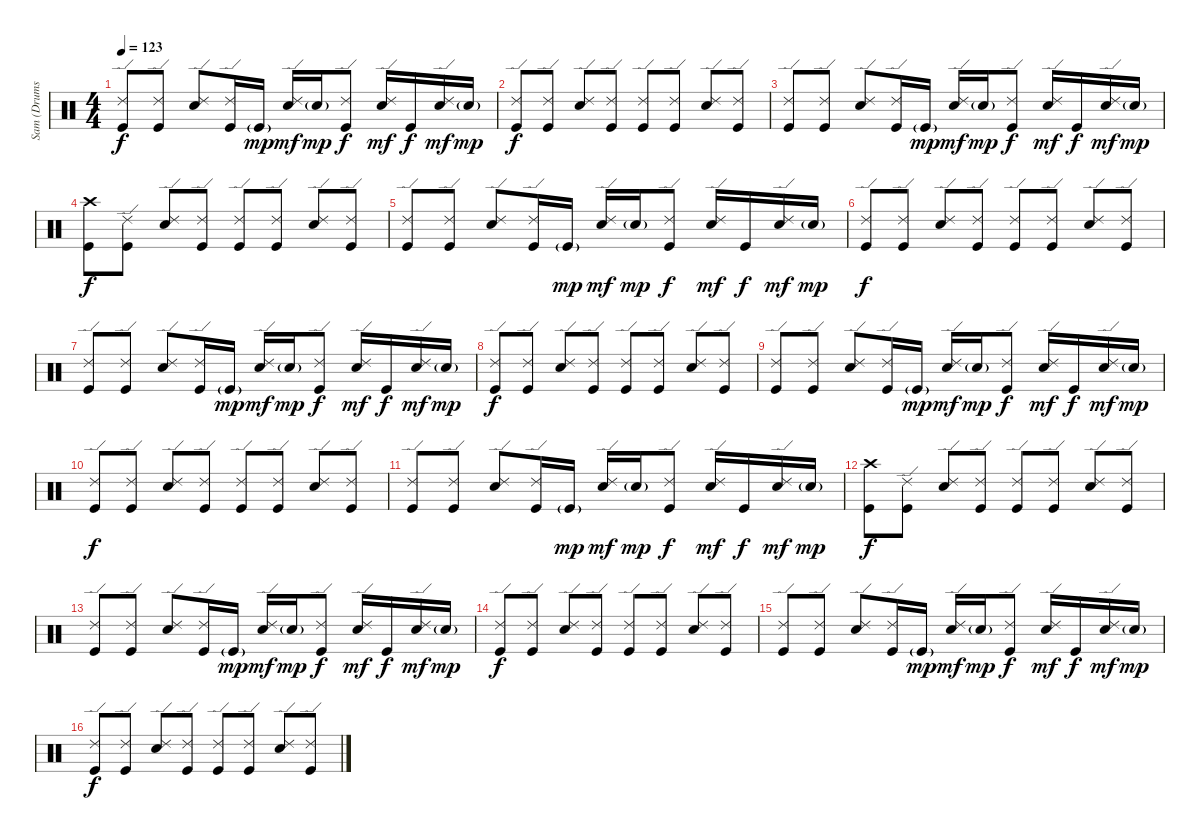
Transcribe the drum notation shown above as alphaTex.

\track ("Sam (Drums)" "Sam (Drums") {instrument percussion}
\staff {score}
\articulation defaults
\ts (4 4)
\tempo 123
\clef neutral
\ks c
("Ride (edge) 2" "Kick (hit)").8{dy f} ("Ride (edge) 2" "Kick (hit)").8 ("Ride (edge) 2" "Snare (hit) 2").8 ("Ride (edge) 2" "Kick (hit)").16 "Kick (hit)"{g}.16{dy mp} ("Ride (edge) 2" "Snare (hit) 2").16{dy mf} "Snare (hit) 2"{g}.16{dy mp} ("Ride (edge) 2" "Kick (hit)").8{dy f} ("Ride (edge) 2" "Snare (hit) 2").16{dy mf} "Kick (hit)".16{dy f} ("Ride (edge) 2" "Snare (hit) 2").16{dy mf} "Snare (hit) 2"{g}.16{dy mp} |
("Ride (edge) 2" "Kick (hit)").8{dy f} ("Ride (edge) 2" "Kick (hit)").8 ("Ride (edge) 2" "Snare (hit) 2").8 ("Ride (edge) 2" "Kick (hit)").8 ("Ride (edge) 2" "Kick (hit)").8 ("Ride (edge) 2" "Kick (hit)").8 ("Ride (edge) 2" "Snare (hit) 2").8 ("Ride (edge) 2" "Kick (hit)").8 |
("Ride (edge) 2" "Kick (hit)").8 ("Ride (edge) 2" "Kick (hit)").8 ("Ride (edge) 2" "Snare (hit) 2").8 ("Ride (edge) 2" "Kick (hit)").16 "Kick (hit)"{g}.16{dy mp} ("Ride (edge) 2" "Snare (hit) 2").16{dy mf} "Snare (hit) 2"{g}.16{dy mp} ("Ride (edge) 2" "Kick (hit)").8{dy f} ("Ride (edge) 2" "Snare (hit) 2").16{dy mf} "Kick (hit)".16{dy f} ("Ride (edge) 2" "Snare (hit) 2").16{dy mf} "Snare (hit) 2"{g}.16{dy mp} |
("Crash high (hit)" "Kick (hit)").8{dy f} ("Ride (edge) 2" "Kick (hit)").8 ("Ride (edge) 2" "Snare (hit) 2").8 ("Ride (edge) 2" "Kick (hit)").8 ("Ride (edge) 2" "Kick (hit)").8 ("Ride (edge) 2" "Kick (hit)").8 ("Ride (edge) 2" "Snare (hit) 2").8 ("Ride (edge) 2" "Kick (hit)").8 |
("Ride (edge) 2" "Kick (hit)").8 ("Ride (edge) 2" "Kick (hit)").8 ("Ride (edge) 2" "Snare (hit) 2").8 ("Ride (edge) 2" "Kick (hit)").16 "Kick (hit)"{g}.16{dy mp} ("Ride (edge) 2" "Snare (hit) 2").16{dy mf} "Snare (hit) 2"{g}.16{dy mp} ("Ride (edge) 2" "Kick (hit)").8{dy f} ("Ride (edge) 2" "Snare (hit) 2").16{dy mf} "Kick (hit)".16{dy f} ("Ride (edge) 2" "Snare (hit) 2").16{dy mf} "Snare (hit) 2"{g}.16{dy mp} |
("Ride (edge) 2" "Kick (hit)").8{dy f} ("Ride (edge) 2" "Kick (hit)").8 ("Ride (edge) 2" "Snare (hit) 2").8 ("Ride (edge) 2" "Kick (hit)").8 ("Ride (edge) 2" "Kick (hit)").8 ("Ride (edge) 2" "Kick (hit)").8 ("Ride (edge) 2" "Snare (hit) 2").8 ("Ride (edge) 2" "Kick (hit)").8 |
("Ride (edge) 2" "Kick (hit)").8 ("Ride (edge) 2" "Kick (hit)").8 ("Ride (edge) 2" "Snare (hit) 2").8 ("Ride (edge) 2" "Kick (hit)").16 "Kick (hit)"{g}.16{dy mp} ("Ride (edge) 2" "Snare (hit) 2").16{dy mf} "Snare (hit) 2"{g}.16{dy mp} ("Ride (edge) 2" "Kick (hit)").8{dy f} ("Ride (edge) 2" "Snare (hit) 2").16{dy mf} "Kick (hit)".16{dy f} ("Ride (edge) 2" "Snare (hit) 2").16{dy mf} "Snare (hit) 2"{g}.16{dy mp} |
("Ride (edge) 2" "Kick (hit)").8{dy f} ("Ride (edge) 2" "Kick (hit)").8 ("Ride (edge) 2" "Snare (hit) 2").8 ("Ride (edge) 2" "Kick (hit)").8 ("Ride (edge) 2" "Kick (hit)").8 ("Ride (edge) 2" "Kick (hit)").8 ("Ride (edge) 2" "Snare (hit) 2").8 ("Ride (edge) 2" "Kick (hit)").8 |
("Ride (edge) 2" "Kick (hit)").8 ("Ride (edge) 2" "Kick (hit)").8 ("Ride (edge) 2" "Snare (hit) 2").8 ("Ride (edge) 2" "Kick (hit)").16 "Kick (hit)"{g}.16{dy mp} ("Ride (edge) 2" "Snare (hit) 2").16{dy mf} "Snare (hit) 2"{g}.16{dy mp} ("Ride (edge) 2" "Kick (hit)").8{dy f} ("Ride (edge) 2" "Snare (hit) 2").16{dy mf} "Kick (hit)".16{dy f} ("Ride (edge) 2" "Snare (hit) 2").16{dy mf} "Snare (hit) 2"{g}.16{dy mp} |
("Ride (edge) 2" "Kick (hit)").8{dy f} ("Ride (edge) 2" "Kick (hit)").8 ("Ride (edge) 2" "Snare (hit) 2").8 ("Ride (edge) 2" "Kick (hit)").8 ("Ride (edge) 2" "Kick (hit)").8 ("Ride (edge) 2" "Kick (hit)").8 ("Ride (edge) 2" "Snare (hit) 2").8 ("Ride (edge) 2" "Kick (hit)").8 |
("Ride (edge) 2" "Kick (hit)").8 ("Ride (edge) 2" "Kick (hit)").8 ("Ride (edge) 2" "Snare (hit) 2").8 ("Ride (edge) 2" "Kick (hit)").16 "Kick (hit)"{g}.16{dy mp} ("Ride (edge) 2" "Snare (hit) 2").16{dy mf} "Snare (hit) 2"{g}.16{dy mp} ("Ride (edge) 2" "Kick (hit)").8{dy f} ("Ride (edge) 2" "Snare (hit) 2").16{dy mf} "Kick (hit)".16{dy f} ("Ride (edge) 2" "Snare (hit) 2").16{dy mf} "Snare (hit) 2"{g}.16{dy mp} |
("Crash high (hit)" "Kick (hit)").8{dy f} ("Ride (edge) 2" "Kick (hit)").8 ("Ride (edge) 2" "Snare (hit) 2").8 ("Ride (edge) 2" "Kick (hit)").8 ("Ride (edge) 2" "Kick (hit)").8 ("Ride (edge) 2" "Kick (hit)").8 ("Ride (edge) 2" "Snare (hit) 2").8 ("Ride (edge) 2" "Kick (hit)").8 |
("Ride (edge) 2" "Kick (hit)").8 ("Ride (edge) 2" "Kick (hit)").8 ("Ride (edge) 2" "Snare (hit) 2").8 ("Ride (edge) 2" "Kick (hit)").16 "Kick (hit)"{g}.16{dy mp} ("Ride (edge) 2" "Snare (hit) 2").16{dy mf} "Snare (hit) 2"{g}.16{dy mp} ("Ride (edge) 2" "Kick (hit)").8{dy f} ("Ride (edge) 2" "Snare (hit) 2").16{dy mf} "Kick (hit)".16{dy f} ("Ride (edge) 2" "Snare (hit) 2").16{dy mf} "Snare (hit) 2"{g}.16{dy mp} |
("Ride (edge) 2" "Kick (hit)").8{dy f} ("Ride (edge) 2" "Kick (hit)").8 ("Ride (edge) 2" "Snare (hit) 2").8 ("Ride (edge) 2" "Kick (hit)").8 ("Ride (edge) 2" "Kick (hit)").8 ("Ride (edge) 2" "Kick (hit)").8 ("Ride (edge) 2" "Snare (hit) 2").8 ("Ride (edge) 2" "Kick (hit)").8 |
("Ride (edge) 2" "Kick (hit)").8 ("Ride (edge) 2" "Kick (hit)").8 ("Ride (edge) 2" "Snare (hit) 2").8 ("Ride (edge) 2" "Kick (hit)").16 "Kick (hit)"{g}.16{dy mp} ("Ride (edge) 2" "Snare (hit) 2").16{dy mf} "Snare (hit) 2"{g}.16{dy mp} ("Ride (edge) 2" "Kick (hit)").8{dy f} ("Ride (edge) 2" "Snare (hit) 2").16{dy mf} "Kick (hit)".16{dy f} ("Ride (edge) 2" "Snare (hit) 2").16{dy mf} "Snare (hit) 2"{g}.16{dy mp} |
("Ride (edge) 2" "Kick (hit)").8{dy f} ("Ride (edge) 2" "Kick (hit)").8 ("Ride (edge) 2" "Snare (hit) 2").8 ("Ride (edge) 2" "Kick (hit)").8 ("Ride (edge) 2" "Kick (hit)").8 ("Ride (edge) 2" "Kick (hit)").8 ("Ride (edge) 2" "Snare (hit) 2").8 ("Ride (edge) 2" "Kick (hit)").8
